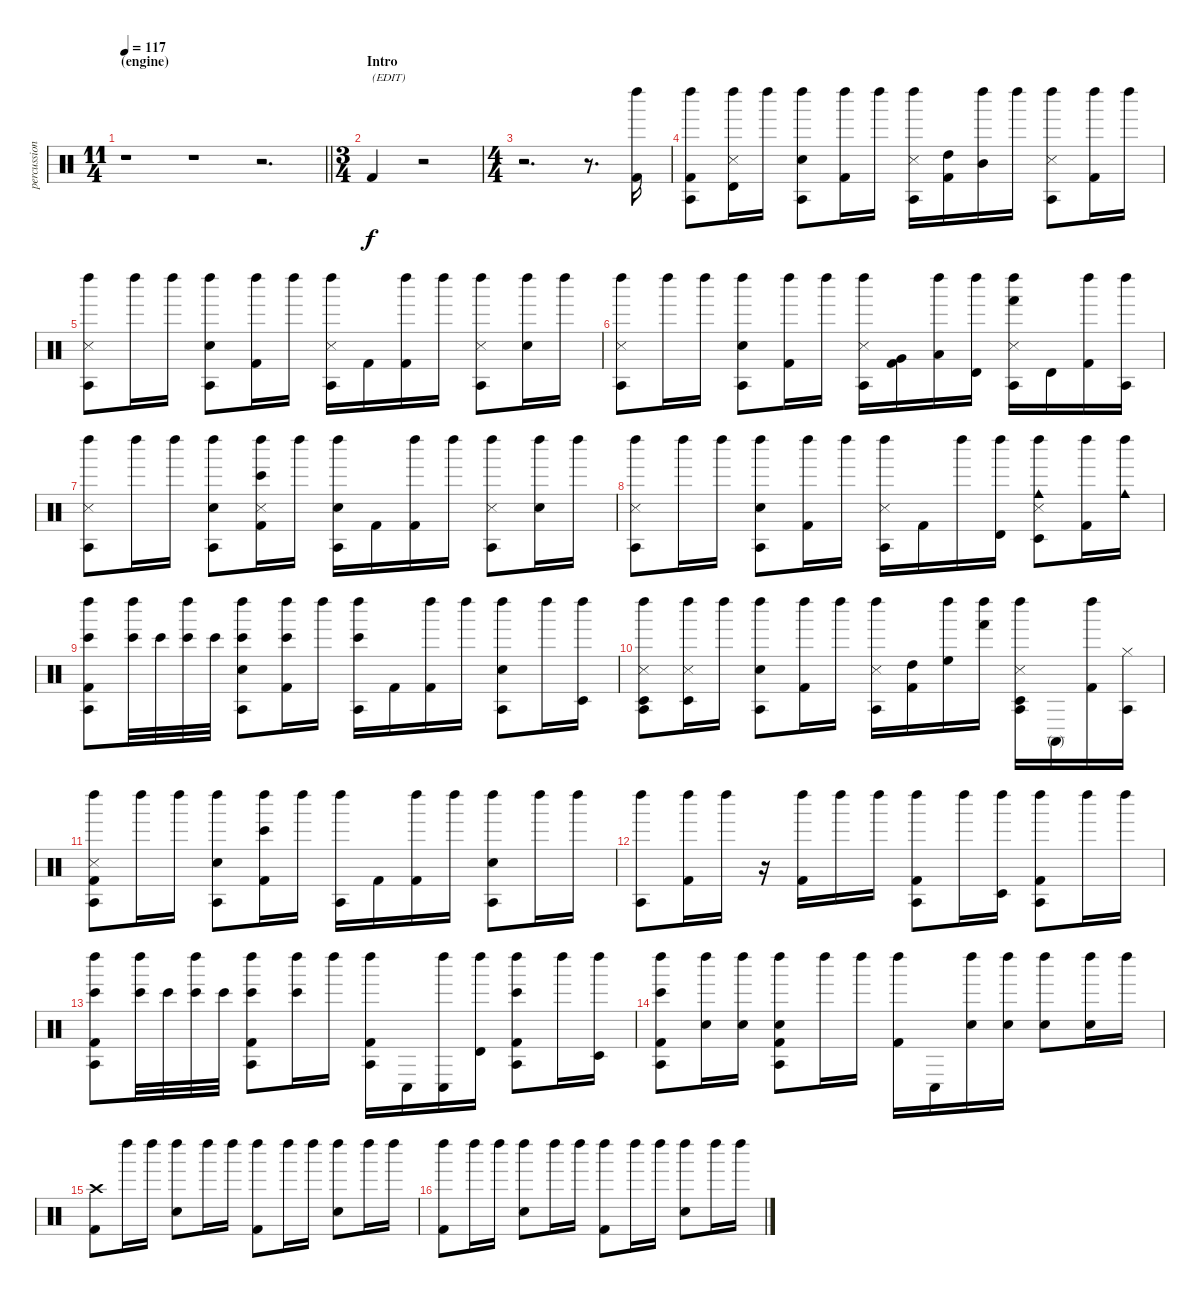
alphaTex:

\track ("percussion" "percussion") {instrument percussion}
\staff {score}
\articulation defaults
\ts (11 4)
\section ("" "(engine)")
\tempo 117
\clef neutral
\barLineRight lightlight
\ks c
r.1{dy f} r.1 r.2{d} |
\ts (3 4)
\section ("" "Intro")
"Kick (hit) 2".4{txt "(EDIT)"} r.2 |
\ts (4 4)
r.2{d} r.8{d} ("Left Maraca (hit)" "Kick (hit) 2").16 |
("Agogo tow (hit)" "Left Maraca (hit)" "Kick (hit) 2").8 ("Timbale high (hit)" "Metronome (hit)" "Left Maraca (hit)").16 "Left Maraca (hit)".16 ("Agogo tow (hit)" "Snare (hit) 2" "Left Maraca (hit)").8 ("Left Maraca (hit)" "Kick (hit) 2").16 "Left Maraca (hit)".16 ("Agogo tow (hit)" "Metronome (hit)" "Left Maraca (hit)").16 ("High Tom (hit)" "Kick (hit) 2").16 ("Mid Tom (hit)" "Left Maraca (hit)").16 "Left Maraca (hit)".16 ("Agogo tow (hit)" "Metronome (hit)" "Left Maraca (hit)").8 ("Left Maraca (hit)" "Kick (hit) 2").16 "Left Maraca (hit)".16 |
("Agogo tow (hit)" "Metronome (hit)" "Left Maraca (hit)").8 "Left Maraca (hit)".16 "Left Maraca (hit)".16 ("Agogo tow (hit)" "Snare (hit) 2" "Left Maraca (hit)").8 ("Left Maraca (hit)" "Kick (hit) 2").16 "Left Maraca (hit)".16 ("Agogo tow (hit)" "Metronome (hit)" "Left Maraca (hit)").16 "Kick (hit) 2".16 ("Left Maraca (hit)" "Kick (hit) 2").16 "Left Maraca (hit)".16 ("Agogo tow (hit)" "Metronome (hit)" "Left Maraca (hit)").8 ("Snare (hit) 2" "Left Maraca (hit)").16 "Left Maraca (hit)".16 |
("Agogo tow (hit)" "Metronome (hit)" "Left Maraca (hit)").8 "Left Maraca (hit)".16 "Left Maraca (hit)".16 ("Agogo tow (hit)" "Snare (hit) 2" "Left Maraca (hit)").8 ("Left Maraca (hit)" "Kick (hit) 2").16 "Left Maraca (hit)".16 ("Agogo tow (hit)" "Metronome (hit)" "Left Maraca (hit)").16 ("Very Low Tom (hit)" "Kick (hit) 2").16 ("Low Floor Tom (hit)" "Left Maraca (hit)").16 ("Timbale high (hit)" "Left Maraca (hit)").16 ("Agogo tow (hit)" "Hand (hit)" "Metronome (hit)" "Left Maraca (hit)").16 "Timbale high (hit)".16 ("Left Maraca (hit)" "Kick (hit) 2").16 ("Agogo tow (hit)" "Left Maraca (hit)").16 |
("Agogo tow (hit)" "Metronome (hit)" "Left Maraca (hit)").8 "Left Maraca (hit)".16 "Left Maraca (hit)".16 ("Agogo tow (hit)" "Snare (hit) 2" "Left Maraca (hit)").8 ("Bongo High (hit)" "Metronome (hit)" "Left Maraca (hit)" "Kick (hit) 2").16 "Left Maraca (hit)".16 ("Agogo tow (hit)" "Snare (hit) 2" "Left Maraca (hit)").16 "Kick (hit) 2".16 ("Left Maraca (hit)" "Kick (hit) 2").16 "Left Maraca (hit)".16 ("Agogo tow (hit)" "Metronome (hit)" "Left Maraca (hit)").8 ("Snare (hit) 2" "Left Maraca (hit)").16 "Left Maraca (hit)".16 |
("Agogo tow (hit)" "Metronome (hit)" "Left Maraca (hit)").8 "Left Maraca (hit)".16 "Left Maraca (hit)".16 ("Agogo tow (hit)" "Snare (hit) 2" "Left Maraca (hit)").8 ("Left Maraca (hit)" "Kick (hit) 2").16 "Left Maraca (hit)".16 ("Agogo tow (hit)" "Metronome (hit)" "Left Maraca (hit)").16 "Kick (hit) 2".16 "Left Maraca (hit)".16 ("Timbale high (hit)" "Left Maraca (hit)").16 ("Cowbell medium (hit)" "Timbale low (hit)" "Metronome (hit)" "Left Maraca (hit)").8 ("Left Maraca (hit)" "Kick (hit) 2").16 ("Cowbell medium (hit)" "Left Maraca (hit)").16 |
("Agogo tow (hit)" "Bongo High (hit)" "Left Maraca (hit)" "Kick (hit) 2").8 ("Bongo High (hit)" "Left Maraca (hit)").32 "Bongo High (hit)".32 ("Bongo High (hit)" "Left Maraca (hit)").32 "Bongo High (hit)".32 ("Agogo tow (hit)" "Bongo High (hit)" "Snare (hit) 2" "Left Maraca (hit)").8 ("Bongo High (hit)" "Left Maraca (hit)" "Kick (hit) 2").16 "Left Maraca (hit)".16 ("Agogo tow (hit)" "Bongo High (hit)" "Left Maraca (hit)").16 "Kick (hit) 2".16 ("Left Maraca (hit)" "Kick (hit) 2").16 "Left Maraca (hit)".16 ("Agogo tow (hit)" "Snare (hit) 2" "Left Maraca (hit)").8 "Left Maraca (hit)".16 ("Timbale low (hit)" "Left Maraca (hit)").16 |
("Agogo tow (hit)" "Timbale low (hit)" "Metronome (hit)" "Left Maraca (hit)").8 ("Timbale low (hit)" "Metronome (hit)" "Left Maraca (hit)").16 "Left Maraca (hit)".16 ("Agogo tow (hit)" "Snare (hit) 2" "Left Maraca (hit)").8 ("Left Maraca (hit)" "Kick (hit) 2").16 "Left Maraca (hit)".16 ("Agogo tow (hit)" "Metronome (hit)" "Left Maraca (hit)").16 ("High Tom (hit)" "Kick (hit) 2").16 ("High Floor Tom (hit)" "Left Maraca (hit)").16 ("Hand (hit)" "Left Maraca (hit)").16 ("Agogo tow (hit)" "Timbale low (hit)" "Metronome (hit)" "Left Maraca (hit)").16 "Conga high (mute)".16 ("Left Maraca (hit)" "Kick (hit) 2").16 ("Agogo tow (hit)" "Hi-Hat (closed)").16 |
("Agogo tow (hit)" "Metronome (hit)" "Left Maraca (hit)" "Kick (hit) 2").8 "Left Maraca (hit)".16 "Left Maraca (hit)".16 ("Agogo tow (hit)" "Snare (hit) 2" "Left Maraca (hit)").8 ("Bongo High (hit)" "Left Maraca (hit)" "Kick (hit) 2").16 "Left Maraca (hit)".16 ("Agogo tow (hit)" "Left Maraca (hit)").16 "Kick (hit) 2".16 ("Left Maraca (hit)" "Kick (hit) 2").16 "Left Maraca (hit)".16 ("Agogo tow (hit)" "Snare (hit) 2" "Left Maraca (hit)").8 "Left Maraca (hit)".16 "Left Maraca (hit)".16 |
("Agogo tow (hit)" "Left Maraca (hit)").8 ("Left Maraca (hit)" "Kick (hit) 2").16 "Left Maraca (hit)".16 r.16 ("Left Maraca (hit)" "Kick (hit) 2").16 "Left Maraca (hit)".16 "Left Maraca (hit)".16 ("Agogo tow (hit)" "Left Maraca (hit)" "Kick (hit) 2").8 "Left Maraca (hit)".16 ("Timbale low (hit)" "Left Maraca (hit)").16 ("Agogo tow (hit)" "Left Maraca (hit)" "Kick (hit) 2").8 "Left Maraca (hit)".16 "Left Maraca (hit)".16 |
("Agogo tow (hit)" "Bongo High (hit)" "Left Maraca (hit)" "Kick (hit) 2").8 ("Bongo High (hit)" "Left Maraca (hit)").32 "Bongo High (hit)".32 ("Bongo High (hit)" "Left Maraca (hit)").32 "Bongo High (hit)".32 ("Agogo tow (hit)" "Bongo High (hit)" "Left Maraca (hit)" "Kick (hit) 2").8 ("Bongo High (hit)" "Left Maraca (hit)").16 "Left Maraca (hit)".16 ("Agogo tow (hit)" "Left Maraca (hit)" "Kick (hit) 2").16 "Conga low (hit)".16 ("Conga low (hit)" "Left Maraca (hit)").16 ("Timbale high (hit)" "Left Maraca (hit)").16 ("Agogo tow (hit)" "Bongo High (hit)" "Left Maraca (hit)" "Kick (hit) 2").8 "Left Maraca (hit)".16 ("Timbale low (hit)" "Left Maraca (hit)").16 |
("Agogo tow (hit)" "Bongo High (hit)" "Left Maraca (hit)" "Kick (hit) 2").8 ("Snare (hit) 2" "Left Maraca (hit)").16 ("Snare (hit) 2" "Left Maraca (hit)").16 ("Agogo tow (hit)" "Snare (hit) 2" "Left Maraca (hit)" "Kick (hit) 2").8 "Left Maraca (hit)".16 "Left Maraca (hit)".16 ("Left Maraca (hit)" "Kick (hit) 2").16 "Conga low (hit)".16 ("Snare (hit) 2" "Left Maraca (hit)").16 ("Snare (hit) 2" "Left Maraca (hit)").16 ("Snare (hit) 2" "Left Maraca (hit)").8 ("Snare (hit) 2" "Left Maraca (hit)").16 "Left Maraca (hit)".16 |
("Crash high (hit)" "Kick (hit) 2").8 "Left Maraca (hit)".16 "Left Maraca (hit)".16 ("Snare (hit) 2" "Left Maraca (hit)").8 "Left Maraca (hit)".16 "Left Maraca (hit)".16 ("Left Maraca (hit)" "Kick (hit) 2").8 "Left Maraca (hit)".16 "Left Maraca (hit)".16 ("Snare (hit) 2" "Left Maraca (hit)").8 "Left Maraca (hit)".16 "Left Maraca (hit)".16 |
("Left Maraca (hit)" "Kick (hit) 2").8 "Left Maraca (hit)".16 "Left Maraca (hit)".16 ("Snare (hit) 2" "Left Maraca (hit)").8 "Left Maraca (hit)".16 "Left Maraca (hit)".16 ("Left Maraca (hit)" "Kick (hit) 2").8 "Left Maraca (hit)".16 "Left Maraca (hit)".16 ("Snare (hit) 2" "Left Maraca (hit)").8 "Left Maraca (hit)".16 "Left Maraca (hit)".16
